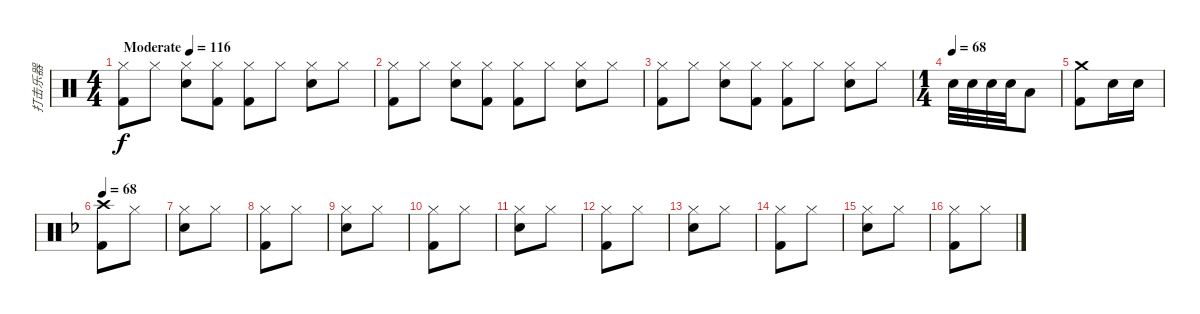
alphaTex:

\track ("打击乐器" "打击乐器") {instrument percussion}
\staff {score}
\articulation defaults
\ts (4 4)
\tempo (116 "Moderate")
\clef neutral
\ks c
("Hi-Hat (closed)" "Kick (hit) 2").8{dy f} "Hi-Hat (closed)".8 ("Hi-Hat (closed)" "Snare (hit) 2").8 ("Hi-Hat (closed)" "Kick (hit) 2").8 ("Hi-Hat (closed)" "Kick (hit) 2").8 "Hi-Hat (closed)".8 ("Hi-Hat (closed)" "Snare (hit) 2").8 "Hi-Hat (closed)".8 |
("Hi-Hat (closed)" "Kick (hit) 2").8 "Hi-Hat (closed)".8 ("Hi-Hat (closed)" "Snare (hit) 2").8 ("Hi-Hat (closed)" "Kick (hit) 2").8 ("Hi-Hat (closed)" "Kick (hit) 2").8 "Hi-Hat (closed)".8 ("Hi-Hat (closed)" "Snare (hit) 2").8 "Hi-Hat (closed)".8 |
("Hi-Hat (closed)" "Kick (hit) 2").8 "Hi-Hat (closed)".8 ("Hi-Hat (closed)" "Snare (hit) 2").8 ("Hi-Hat (closed)" "Kick (hit) 2").8 ("Hi-Hat (closed)" "Kick (hit) 2").8 "Hi-Hat (closed)".8 ("Hi-Hat (closed)" "Snare (hit) 2").8 "Hi-Hat (closed)".8 |
\ts (1 4)
\tempo (68)
"Snare (hit) 2".32 "Snare (hit) 2".32 "Snare (hit) 2".32 "Snare (hit) 2".32 "Low Tom (hit)".8 |
("Crash medium (hit)" "Kick (hit) 2").8 "Snare (hit) 2".16 "Snare (hit) 2".16 |
\tempo 68
\ks f
("Crash high (hit)" "Kick (hit) 2").8 "Hi-Hat (closed)".8 |
("Hi-Hat (closed)" "Snare (hit) 2").8 "Hi-Hat (closed)".8 |
("Hi-Hat (closed)" "Kick (hit) 2").8 "Hi-Hat (closed)".8 |
("Hi-Hat (closed)" "Snare (hit) 2").8 "Hi-Hat (closed)".8 |
("Hi-Hat (closed)" "Kick (hit) 2").8 "Hi-Hat (closed)".8 |
("Hi-Hat (closed)" "Snare (hit) 2").8 "Hi-Hat (closed)".8 |
("Hi-Hat (closed)" "Kick (hit) 2").8 "Hi-Hat (closed)".8 |
("Hi-Hat (closed)" "Snare (hit) 2").8 "Hi-Hat (closed)".8 |
("Hi-Hat (closed)" "Kick (hit) 2").8 "Hi-Hat (closed)".8 |
("Hi-Hat (closed)" "Snare (hit) 2").8 "Hi-Hat (closed)".8 |
("Hi-Hat (closed)" "Kick (hit) 2").8 "Hi-Hat (closed)".8
